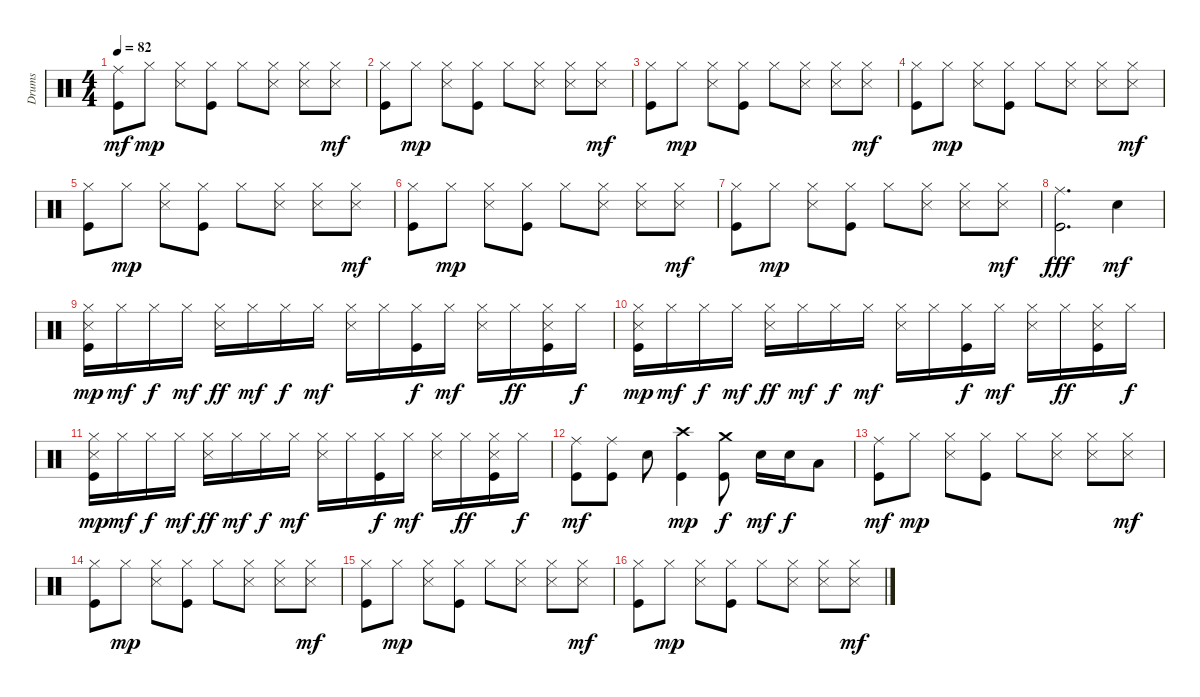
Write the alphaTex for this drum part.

\track ("Drums" "Drums") {instrument percussion}
\staff {score}
\articulation defaults
\ts (4 4)
\tempo 82
\clef neutral
\ks c
("Kick (hit)" "Ride (middle)").8{dy mf} "Hi-Hat (closed)".8{dy mp} ("Snare (side stick) 3" "Hi-Hat (closed)").8 ("Kick (hit)" "Hi-Hat (closed)").8 "Hi-Hat (closed)".8 ("Snare (side stick) 3" "Hi-Hat (closed)").8 ("Snare (side stick) 3" "Hi-Hat (closed)").8 ("Snare (side stick) 3" "Hi-Hat (closed)").8{dy mf} |
("Kick (hit)" "Hi-Hat (closed)").8 "Hi-Hat (closed)".8{dy mp} ("Snare (side stick) 3" "Hi-Hat (closed)").8 ("Kick (hit)" "Hi-Hat (closed)").8 "Hi-Hat (closed)".8 ("Snare (side stick) 3" "Hi-Hat (closed)").8 ("Snare (side stick) 3" "Hi-Hat (closed)").8 ("Snare (side stick) 3" "Hi-Hat (closed)").8{dy mf} |
("Kick (hit)" "Hi-Hat (closed)").8 "Hi-Hat (closed)".8{dy mp} ("Snare (side stick) 3" "Hi-Hat (closed)").8 ("Kick (hit)" "Hi-Hat (closed)").8 "Hi-Hat (closed)".8 ("Snare (side stick) 3" "Hi-Hat (closed)").8 ("Snare (side stick) 3" "Hi-Hat (closed)").8 ("Snare (side stick) 3" "Hi-Hat (closed)").8{dy mf} |
("Kick (hit)" "Hi-Hat (closed)").8 "Hi-Hat (closed)".8{dy mp} ("Snare (side stick) 3" "Hi-Hat (closed)").8 ("Kick (hit)" "Hi-Hat (closed)").8 "Hi-Hat (closed)".8 ("Snare (side stick) 3" "Hi-Hat (closed)").8 ("Snare (side stick) 3" "Hi-Hat (closed)").8 ("Snare (side stick) 3" "Hi-Hat (closed)").8{dy mf} |
("Kick (hit)" "Hi-Hat (closed)").8 "Hi-Hat (closed)".8{dy mp} ("Snare (side stick) 3" "Hi-Hat (closed)").8 ("Kick (hit)" "Hi-Hat (closed)").8 "Hi-Hat (closed)".8 ("Snare (side stick) 3" "Hi-Hat (closed)").8 ("Snare (side stick) 3" "Hi-Hat (closed)").8 ("Snare (side stick) 3" "Hi-Hat (closed)").8{dy mf} |
("Kick (hit)" "Hi-Hat (closed)").8 "Hi-Hat (closed)".8{dy mp} ("Snare (side stick) 3" "Hi-Hat (closed)").8 ("Kick (hit)" "Hi-Hat (closed)").8 "Hi-Hat (closed)".8 ("Snare (side stick) 3" "Hi-Hat (closed)").8 ("Snare (side stick) 3" "Hi-Hat (closed)").8 ("Snare (side stick) 3" "Hi-Hat (closed)").8{dy mf} |
("Kick (hit)" "Hi-Hat (closed)").8 "Hi-Hat (closed)".8{dy mp} ("Snare (side stick) 3" "Hi-Hat (closed)").8 ("Kick (hit)" "Hi-Hat (closed)").8 "Hi-Hat (closed)".8 ("Snare (side stick) 3" "Hi-Hat (closed)").8 ("Snare (side stick) 3" "Hi-Hat (closed)").8 ("Snare (side stick) 3" "Hi-Hat (closed)").8{dy mf} |
("Kick (hit)" "Ride (middle)").2{d dy fff} "Electric Snare (hit)".4{dy mf} |
("Kick (hit)" "Snare (side stick) 3" "Hi-Hat (closed)").16{dy mp} "Hi-Hat (closed)".16{dy mf} "Hi-Hat (closed)".16{dy f} "Hi-Hat (closed)".16{dy mf} ("Snare (side stick) 3" "Hi-Hat (closed)").16{dy ff} "Hi-Hat (closed)".16{dy mf} "Hi-Hat (closed)".16{dy f} "Hi-Hat (closed)".16{dy mf} ("Snare (side stick) 3" "Hi-Hat (closed)").16 "Hi-Hat (closed)".16 ("Kick (hit)" "Hi-Hat (closed)").16{dy f} "Hi-Hat (closed)".16{dy mf} ("Snare (side stick) 3" "Hi-Hat (closed)").16 "Hi-Hat (closed)".16{dy ff} ("Kick (hit)" "Snare (side stick) 3" "Hi-Hat (closed)").16 "Hi-Hat (closed)".16{dy f} |
("Kick (hit)" "Snare (side stick) 3" "Hi-Hat (closed)").16{dy mp} "Hi-Hat (closed)".16{dy mf} "Hi-Hat (closed)".16{dy f} "Hi-Hat (closed)".16{dy mf} ("Snare (side stick) 3" "Hi-Hat (closed)").16{dy ff} "Hi-Hat (closed)".16{dy mf} "Hi-Hat (closed)".16{dy f} "Hi-Hat (closed)".16{dy mf} ("Snare (side stick) 3" "Hi-Hat (closed)").16 "Hi-Hat (closed)".16 ("Kick (hit)" "Hi-Hat (closed)").16{dy f} "Hi-Hat (closed)".16{dy mf} ("Snare (side stick) 3" "Hi-Hat (closed)").16 "Hi-Hat (closed)".16{dy ff} ("Kick (hit)" "Snare (side stick) 3" "Hi-Hat (closed)").16 "Hi-Hat (closed)".16{dy f} |
("Kick (hit)" "Snare (side stick) 3" "Hi-Hat (closed)").16{dy mp} "Hi-Hat (closed)".16{dy mf} "Hi-Hat (closed)".16{dy f} "Hi-Hat (closed)".16{dy mf} ("Snare (side stick) 3" "Hi-Hat (closed)").16{dy ff} "Hi-Hat (closed)".16{dy mf} "Hi-Hat (closed)".16{dy f} "Hi-Hat (closed)".16{dy mf} ("Snare (side stick) 3" "Hi-Hat (closed)").16 "Hi-Hat (closed)".16 ("Kick (hit)" "Hi-Hat (closed)").16{dy f} "Hi-Hat (closed)".16{dy mf} ("Snare (side stick) 3" "Hi-Hat (closed)").16 "Hi-Hat (closed)".16{dy ff} ("Kick (hit)" "Snare (side stick) 3" "Hi-Hat (closed)").16 "Hi-Hat (closed)".16{dy f} |
("Kick (hit)" "Ride (middle)").8{dy mf} ("Kick (hit)" "Ride (middle)").8 "Electric Snare (hit)".8 ("Kick (hit)" "Crash high (hit)").4{dy mp} ("Kick (hit)" "Crash medium (hit)").8{dy f} "Electric Snare (hit)".16{dy mf} "Electric Snare (hit)".16{dy f} "Low Tom (hit)".8 |
("Kick (hit)" "Ride (middle)").8{dy mf} "Hi-Hat (closed)".8{dy mp} ("Snare (side stick) 3" "Hi-Hat (closed)").8 ("Kick (hit)" "Hi-Hat (closed)").8 "Hi-Hat (closed)".8 ("Snare (side stick) 3" "Hi-Hat (closed)").8 ("Snare (side stick) 3" "Hi-Hat (closed)").8 ("Snare (side stick) 3" "Hi-Hat (closed)").8{dy mf} |
("Kick (hit)" "Hi-Hat (closed)").8 "Hi-Hat (closed)".8{dy mp} ("Snare (side stick) 3" "Hi-Hat (closed)").8 ("Kick (hit)" "Hi-Hat (closed)").8 "Hi-Hat (closed)".8 ("Snare (side stick) 3" "Hi-Hat (closed)").8 ("Snare (side stick) 3" "Hi-Hat (closed)").8 ("Snare (side stick) 3" "Hi-Hat (closed)").8{dy mf} |
("Kick (hit)" "Hi-Hat (closed)").8 "Hi-Hat (closed)".8{dy mp} ("Snare (side stick) 3" "Hi-Hat (closed)").8 ("Kick (hit)" "Hi-Hat (closed)").8 "Hi-Hat (closed)".8 ("Snare (side stick) 3" "Hi-Hat (closed)").8 ("Snare (side stick) 3" "Hi-Hat (closed)").8 ("Snare (side stick) 3" "Hi-Hat (closed)").8{dy mf} |
("Kick (hit)" "Hi-Hat (closed)").8 "Hi-Hat (closed)".8{dy mp} ("Snare (side stick) 3" "Hi-Hat (closed)").8 ("Kick (hit)" "Hi-Hat (closed)").8 "Hi-Hat (closed)".8 ("Snare (side stick) 3" "Hi-Hat (closed)").8 ("Snare (side stick) 3" "Hi-Hat (closed)").8 ("Snare (side stick) 3" "Hi-Hat (closed)").8{dy mf}
